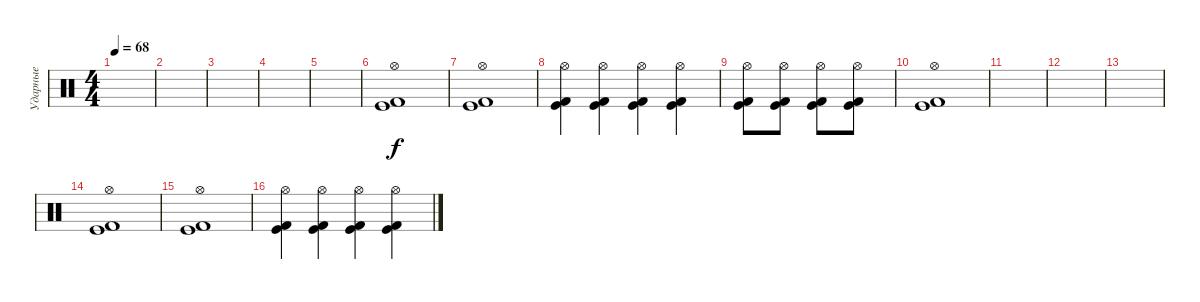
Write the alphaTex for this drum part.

\track ("Ударные" "Ударные") {instrument percussion}
\staff {score}
\articulation defaults
\ts (4 4)
\tempo 68
\clef neutral
\ks c
|
|
|
|
|
("Kick (hit)" "Kick (hit) 2" "Hi-Hat (open)").1 |
("Kick (hit)" "Kick (hit) 2" "Hi-Hat (open)").1 |
("Kick (hit)" "Kick (hit) 2" "Hi-Hat (open)").4 ("Kick (hit)" "Kick (hit) 2" "Hi-Hat (open)").4 ("Kick (hit)" "Kick (hit) 2" "Hi-Hat (open)").4 ("Kick (hit)" "Kick (hit) 2" "Hi-Hat (open)").4 |
("Kick (hit)" "Kick (hit) 2" "Hi-Hat (open)").8 ("Kick (hit)" "Kick (hit) 2" "Hi-Hat (open)").8 ("Kick (hit)" "Kick (hit) 2" "Hi-Hat (open)").8 ("Kick (hit)" "Kick (hit) 2" "Hi-Hat (open)").8 |
("Kick (hit)" "Kick (hit) 2" "Hi-Hat (open)").1 |
|
|
|
("Kick (hit)" "Kick (hit) 2" "Hi-Hat (open)").1 |
("Kick (hit)" "Kick (hit) 2" "Hi-Hat (open)").1 |
("Kick (hit)" "Kick (hit) 2" "Hi-Hat (open)").4 ("Kick (hit)" "Kick (hit) 2" "Hi-Hat (open)").4 ("Kick (hit)" "Kick (hit) 2" "Hi-Hat (open)").4 ("Kick (hit)" "Kick (hit) 2" "Hi-Hat (open)").4
